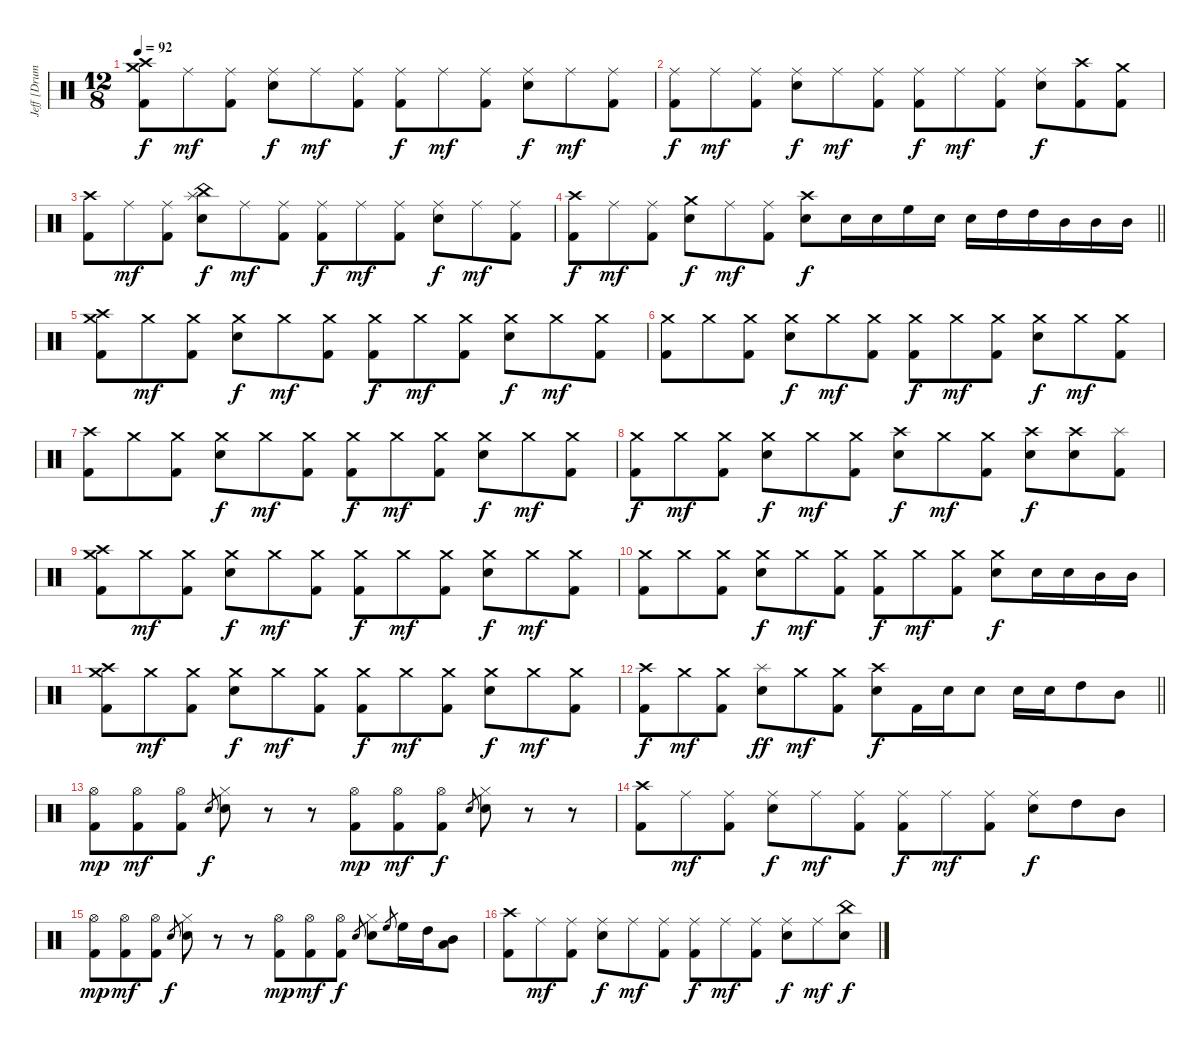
\track ("Jeff [Drums]" "Jeff [Drum") {instrument percussion}
\staff {score}
\articulation defaults
\ts (12 8)
\tempo 92
\clef neutral
\ks c
("Crash high (hit)" "Crash medium (hit)" "Kick (hit) 2").8{dy f} "Ride (middle)".8{dy mf} ("Ride (middle)" "Kick (hit) 2").8 ("Ride (middle)" "Electric Snare (hit)").8{dy f} "Ride (middle)".8{dy mf} ("Ride (middle)" "Kick (hit) 2").8 ("Ride (middle)" "Kick (hit) 2").8{dy f} "Ride (middle)".8{dy mf} ("Ride (middle)" "Kick (hit) 2").8 ("Ride (middle)" "Electric Snare (hit)").8{dy f} "Ride (middle)".8{dy mf} ("Ride (middle)" "Kick (hit) 2").8 |
("Ride (middle)" "Kick (hit) 2").8{dy f} "Ride (middle)".8{dy mf} ("Ride (middle)" "Kick (hit) 2").8 ("Ride (middle)" "Electric Snare (hit)").8{dy f} "Ride (middle)".8{dy mf} ("Ride (middle)" "Kick (hit) 2").8 ("Ride (middle)" "Kick (hit) 2").8{dy f} "Ride (middle)".8{dy mf} ("Ride (middle)" "Kick (hit) 2").8 ("Ride (middle)" "Electric Snare (hit)").8{dy f} ("Crash high (hit)" "Kick (hit) 2").8 ("Crash medium (hit)" "Kick (hit) 2").8 |
("Crash high (hit)" "Kick (hit) 2").8 "Ride (middle)".8{dy mf} ("Ride (middle)" "Kick (hit) 2").8 ("China (hit)" "Splash (hit)" "Electric Snare (hit)").8{dy f} "Ride (middle)".8{dy mf} ("Ride (middle)" "Kick (hit) 2").8 ("Ride (middle)" "Kick (hit) 2").8{dy f} "Ride (middle)".8{dy mf} ("Ride (middle)" "Kick (hit) 2").8 ("Ride (middle)" "Electric Snare (hit)").8{dy f} "Ride (middle)".8{dy mf} ("Ride (middle)" "Kick (hit) 2").8 |
\barLineRight lightlight
("Crash high (hit)" "Kick (hit) 2").8{dy f} "Ride (middle)".8{dy mf} ("Ride (middle)" "Kick (hit) 2").8 ("Crash medium (hit)" "Electric Snare (hit)").8{dy f} "Ride (middle)".8{dy mf} ("Ride (middle)" "Kick (hit) 2").8 ("Crash high (hit)" "Electric Snare (hit)").8{dy f} "Electric Snare (hit)".16 "Electric Snare (hit)".16 "High Floor Tom (hit)".16 "Electric Snare (hit)".16 "Electric Snare (hit)".16 "High Tom (hit)".16 "High Tom (hit)".16 "Mid Tom (hit)".16 "Mid Tom (hit)".16 "Mid Tom (hit)".16 |
("Crash high (hit)" "Crash medium (hit)" "Kick (hit) 2").8 "Crash medium (hit)".8{dy mf} ("Crash medium (hit)" "Kick (hit) 2").8 ("Crash medium (hit)" "Electric Snare (hit)").8{dy f} "Crash medium (hit)".8{dy mf} ("Crash medium (hit)" "Kick (hit) 2").8 ("Crash medium (hit)" "Kick (hit) 2").8{dy f} "Crash medium (hit)".8{dy mf} ("Crash medium (hit)" "Kick (hit) 2").8 ("Crash medium (hit)" "Electric Snare (hit)").8{dy f} "Crash medium (hit)".8{dy mf} ("Crash medium (hit)" "Kick (hit) 2").8 |
("Crash medium (hit)" "Kick (hit) 2").8 "Crash medium (hit)".8 ("Crash medium (hit)" "Kick (hit) 2").8 ("Crash medium (hit)" "Electric Snare (hit)").8{dy f} "Crash medium (hit)".8{dy mf} ("Crash medium (hit)" "Kick (hit) 2").8 ("Crash medium (hit)" "Kick (hit) 2").8{dy f} "Crash medium (hit)".8{dy mf} ("Crash medium (hit)" "Kick (hit) 2").8 ("Crash medium (hit)" "Electric Snare (hit)").8{dy f} "Crash medium (hit)".8{dy mf} ("Crash medium (hit)" "Kick (hit) 2").8 |
("Crash high (hit)" "Kick (hit) 2").8 "Crash medium (hit)".8 ("Crash medium (hit)" "Kick (hit) 2").8 ("Crash medium (hit)" "Electric Snare (hit)").8{dy f} "Crash medium (hit)".8{dy mf} ("Crash medium (hit)" "Kick (hit) 2").8 ("Crash medium (hit)" "Kick (hit) 2").8{dy f} "Crash medium (hit)".8{dy mf} ("Crash medium (hit)" "Kick (hit) 2").8 ("Crash medium (hit)" "Electric Snare (hit)").8{dy f} "Crash medium (hit)".8{dy mf} ("Crash medium (hit)" "Kick (hit) 2").8 |
("Crash medium (hit)" "Kick (hit) 2").8{dy f} "Crash medium (hit)".8{dy mf} ("Crash medium (hit)" "Kick (hit) 2").8 ("Crash medium (hit)" "Electric Snare (hit)").8{dy f} "Crash medium (hit)".8{dy mf} ("Crash medium (hit)" "Kick (hit) 2").8 ("Crash high (hit)" "Electric Snare (hit)").8{dy f} "Crash medium (hit)".8{dy mf} ("Crash medium (hit)" "Kick (hit) 2").8 ("Crash high (hit)" "Electric Snare (hit)").8{dy f} ("Crash high (hit)" "Electric Snare (hit)").8 ("Splash (hit)" "Kick (hit) 2").8 |
("Crash high (hit)" "Crash medium (hit)" "Kick (hit) 2").8 "Crash medium (hit)".8{dy mf} ("Crash medium (hit)" "Kick (hit) 2").8 ("Crash medium (hit)" "Electric Snare (hit)").8{dy f} "Crash medium (hit)".8{dy mf} ("Crash medium (hit)" "Kick (hit) 2").8 ("Crash medium (hit)" "Kick (hit) 2").8{dy f} "Crash medium (hit)".8{dy mf} ("Crash medium (hit)" "Kick (hit) 2").8 ("Crash medium (hit)" "Electric Snare (hit)").8{dy f} "Crash medium (hit)".8{dy mf} ("Crash medium (hit)" "Kick (hit) 2").8 |
("Crash medium (hit)" "Kick (hit) 2").8 "Crash medium (hit)".8 ("Crash medium (hit)" "Kick (hit) 2").8 ("Crash medium (hit)" "Electric Snare (hit)").8{dy f} "Crash medium (hit)".8{dy mf} ("Crash medium (hit)" "Kick (hit) 2").8 ("Crash medium (hit)" "Kick (hit) 2").8{dy f} "Crash medium (hit)".8{dy mf} ("Crash medium (hit)" "Kick (hit) 2").8 ("Crash medium (hit)" "Electric Snare (hit)").8{dy f} "Electric Snare (hit)".16 "Electric Snare (hit)".16 "Mid Tom (hit)".16 "Mid Tom (hit)".16 |
("Crash high (hit)" "Crash medium (hit)" "Kick (hit) 2").8 "Crash medium (hit)".8{dy mf} ("Crash medium (hit)" "Kick (hit) 2").8 ("Crash medium (hit)" "Electric Snare (hit)").8{dy f} "Crash medium (hit)".8{dy mf} ("Crash medium (hit)" "Kick (hit) 2").8 ("Crash medium (hit)" "Kick (hit) 2").8{dy f} "Crash medium (hit)".8{dy mf} ("Crash medium (hit)" "Kick (hit) 2").8 ("Crash medium (hit)" "Electric Snare (hit)").8{dy f} "Crash medium (hit)".8{dy mf} ("Crash medium (hit)" "Kick (hit) 2").8 |
\barLineRight lightlight
("Crash high (hit)" "Kick (hit) 2").8{dy f} "Crash medium (hit)".8{dy mf} ("Crash medium (hit)" "Kick (hit) 2").8 ("Splash (hit)" "Electric Snare (hit)").8{dy ff} "Crash medium (hit)".8{dy mf} ("Crash medium (hit)" "Kick (hit) 2").8 ("Crash high (hit)" "Electric Snare (hit)").8{dy f} "Kick (hit) 2".16 "Electric Snare (hit)".16 "Electric Snare (hit)".8 "Electric Snare (hit)".16 "Electric Snare (hit)".16 "High Tom (hit)".8 "Mid Tom (hit)".8 |
("Hi-Hat (open)" "Kick (hit) 2").8{dy mp} ("Hi-Hat (open)" "Kick (hit) 2").8{dy mf} ("Hi-Hat (open)" "Kick (hit) 2").8 "Electric Snare (hit)".8{gr dy f} ("Hi-Hat (closed)" "Electric Snare (hit)").8 r.8 r.8 ("Hi-Hat (open)" "Kick (hit) 2").8{dy mp} ("Hi-Hat (open)" "Kick (hit) 2").8{dy mf} ("Hi-Hat (open)" "Kick (hit) 2").8{dy f} "Electric Snare (hit)".8{gr} ("Hi-Hat (closed)" "Electric Snare (hit)").8 r.8 r.8 |
("Crash high (hit)" "Kick (hit) 2").8 "Ride (middle)".8{dy mf} ("Ride (middle)" "Kick (hit) 2").8 ("Ride (middle)" "Electric Snare (hit)").8{dy f} "Ride (middle)".8{dy mf} ("Ride (middle)" "Kick (hit) 2").8 ("Ride (middle)" "Kick (hit) 2").8{dy f} "Ride (middle)".8{dy mf} ("Ride (middle)" "Kick (hit) 2").8 ("Ride (middle)" "Electric Snare (hit)").8{dy f} "High Tom (hit)".8 "Mid Tom (hit)".8 |
("Hi-Hat (open)" "Kick (hit) 2").8{dy mp} ("Hi-Hat (open)" "Kick (hit) 2").8{dy mf} ("Hi-Hat (open)" "Kick (hit) 2").8 "Electric Snare (hit)".8{gr dy f} ("Hi-Hat (closed)" "Electric Snare (hit)").8 r.8 r.8 ("Hi-Hat (open)" "Kick (hit) 2").8{dy mp} ("Hi-Hat (open)" "Kick (hit) 2").8{dy mf} ("Hi-Hat (open)" "Kick (hit) 2").8{dy f} "Electric Snare (hit)".8{gr} ("Hi-Hat (closed)" "Electric Snare (hit)").8 "High Floor Tom (hit)".8{gr} "High Floor Tom (hit)".16 "High Tom (hit)".16 ("Mid Tom (hit)" "Low Tom (hit)").8 |
("Crash high (hit)" "Kick (hit) 2").8 "Ride (middle)".8{dy mf} ("Ride (middle)" "Kick (hit) 2").8 ("Ride (middle)" "Electric Snare (hit)").8{dy f} "Ride (middle)".8{dy mf} ("Ride (middle)" "Kick (hit) 2").8 ("Ride (middle)" "Kick (hit) 2").8{dy f} "Ride (middle)".8{dy mf} ("Ride (middle)" "Kick (hit) 2").8 ("Ride (middle)" "Electric Snare (hit)").8{dy f} "Ride (middle)".8{dy mf} ("China (hit)" "Electric Snare (hit)").8{dy f}
